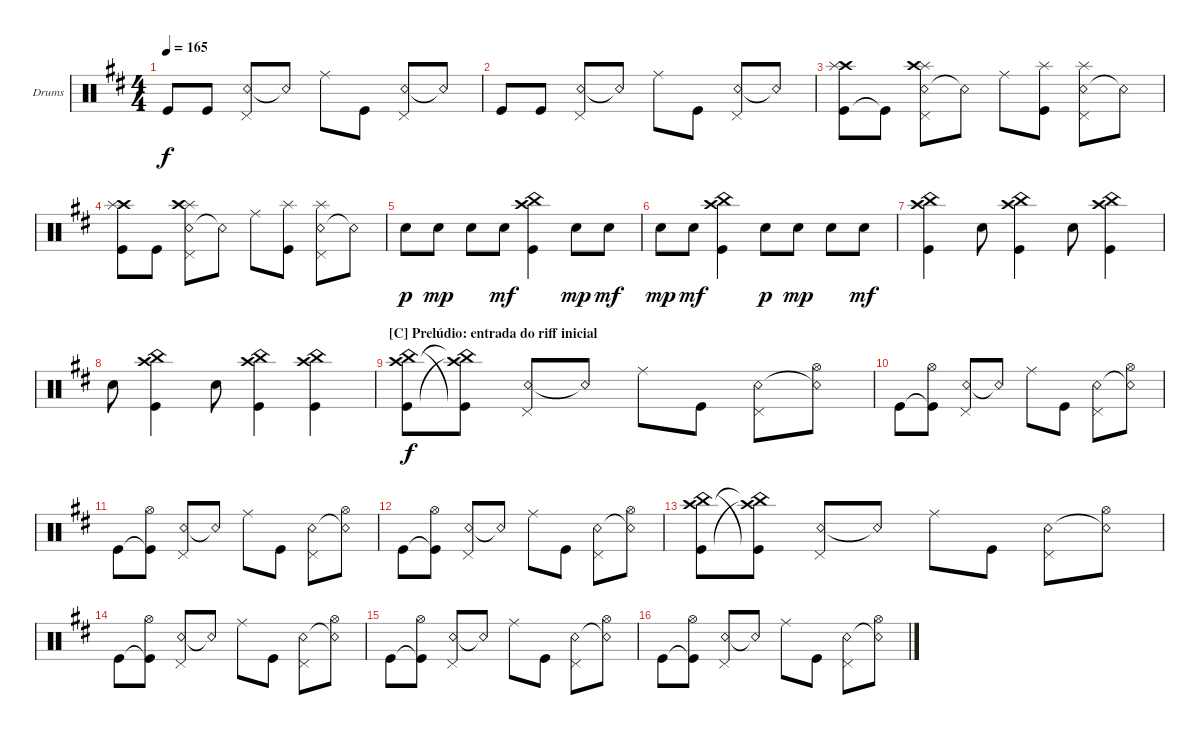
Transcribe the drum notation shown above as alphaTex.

\defaultSystemsLayout 4
\bracketExtendMode groupsimilarinstruments
\firstSystemTrackNameOrientation horizontal
\otherSystemsTrackNameOrientation horizontal
\track ("Bateria" "Drums") {multiBarRest instrument percussion}
\staff {score}
\articulation defaults
\ts (4 4)
\tempo 165
\clef neutral
\ks d "Kick (hit)".8{dy f} "Kick (hit)".8
("Snare (rim shot)" "Pedal Hi-Hat (hit)").8 "Snare (rim shot)"{t}.8 "Ride (middle)".8 "Kick (hit)".8 ("Snare (rim shot)" "Pedal Hi-Hat (hit)").8 "Snare (rim shot)"{t}.8 |
"Kick (hit)".8 "Kick (hit)".8 ("Snare (rim shot)" "Pedal Hi-Hat (hit)").8 "Snare (rim shot)"{t}.8 "Ride (middle)".8 "Kick (hit)".8 ("Snare (rim shot)" "Pedal Hi-Hat (hit)").8 "Snare (rim shot)"{t}.8 |
("Kick (hit)" "Crash high (hit)" "Splash (hit)").8 "Kick (hit)"{t}.8 ("Snare (rim shot)" "Pedal Hi-Hat (hit)" "Splash (hit)" "Crash high (hit)").8 "Snare (rim shot)"{t}.8 "Ride (middle)".8 ("Kick (hit)" "Splash (hit)").8 ("Snare (rim shot)" "Pedal Hi-Hat (hit)" "Splash (hit)").8 "Snare (rim shot)"{t}.8 |
("Kick (hit)" "Crash high (hit)" "Splash (hit)").8 "Kick (hit)".8 ("Snare (rim shot)" "Pedal Hi-Hat (hit)" "Splash (hit)" "Crash high (hit)").8 "Snare (rim shot)"{t}.8 "Ride (middle)".8 ("Kick (hit)" "Splash (hit)").8 ("Snare (rim shot)" "Pedal Hi-Hat (hit)" "Splash (hit)").8 "Snare (rim shot)"{t}.8 |
"Snare (hit) 2".8{dy p} "Snare (hit) 2".8{dy mp} "Snare (hit) 2".8 "Snare (hit) 2".8{dy mf} ("Crash high (hit)" "China (hit)" "Kick (hit)").4 "Snare (hit) 2".8{dy mp} "Snare (hit) 2".8{dy mf} |
"Snare (hit) 2".8{dy mp} "Snare (hit) 2".8{dy mf} ("Crash high (hit)" "China (hit)" "Kick (hit)").4 "Snare (hit) 2".8{dy p} "Snare (hit) 2".8{dy mp} "Snare (hit) 2".8 "Snare (hit) 2".8{dy mf} |
("Crash high (hit)" "China (hit)" "Kick (hit)").4 "Snare (hit) 2".8 ("Crash high (hit)" "China (hit)" "Kick (hit)").4 "Snare (hit) 2".8 ("Crash high (hit)" "China (hit)" "Kick (hit)").4 |
"Snare (hit) 2".8 ("Crash high (hit)" "China (hit)" "Kick (hit)").4 "Snare (hit) 2".8 ("Crash high (hit)" "China (hit)" "Kick (hit)").4 ("Crash high (hit)" "China (hit)" "Kick (hit)").4 |
\section ("C" "Prelúdio: entrada do riff inicial")
("China (hit)" "Crash high (hit)" "Kick (hit)").8{dy f} ("Kick (hit)"{t} "China (hit)"{t} "Crash high (hit)"{t}).8 ("Snare (rim shot)" "Pedal Hi-Hat (hit)").8 "Snare (rim shot)"{t}.8 "Ride (middle)".8 "Kick (hit)".8 ("Snare (rim shot)" "Pedal Hi-Hat (hit)").8 ("Snare (rim shot)"{t} "Hi-Hat (open)").8 |
"Kick (hit)".8 ("Kick (hit)"{t} "Hi-Hat (open)").8 ("Snare (rim shot)" "Pedal Hi-Hat (hit)").8 "Snare (rim shot)"{t}.8 "Ride (middle)".8 "Kick (hit)".8 ("Snare (rim shot)" "Pedal Hi-Hat (hit)").8 ("Snare (rim shot)"{t} "Hi-Hat (open)").8 |
"Kick (hit)".8 ("Kick (hit)"{t} "Hi-Hat (open)").8 ("Snare (rim shot)" "Pedal Hi-Hat (hit)").8 "Snare (rim shot)"{t}.8 "Ride (middle)".8 "Kick (hit)".8 ("Snare (rim shot)" "Pedal Hi-Hat (hit)").8 ("Snare (rim shot)"{t} "Hi-Hat (open)").8 |
"Kick (hit)".8 ("Kick (hit)"{t} "Hi-Hat (open)").8 ("Snare (rim shot)" "Pedal Hi-Hat (hit)").8 "Snare (rim shot)"{t}.8 "Ride (middle)".8 "Kick (hit)".8 ("Snare (rim shot)" "Pedal Hi-Hat (hit)").8 ("Snare (rim shot)"{t} "Hi-Hat (open)").8 |
("China (hit)" "Crash high (hit)" "Kick (hit)").8 ("Kick (hit)"{t} "China (hit)"{t} "Crash high (hit)"{t}).8 ("Snare (rim shot)" "Pedal Hi-Hat (hit)").8 "Snare (rim shot)"{t}.8 "Ride (middle)".8 "Kick (hit)".8 ("Snare (rim shot)" "Pedal Hi-Hat (hit)").8 ("Snare (rim shot)"{t} "Hi-Hat (open)").8 |
"Kick (hit)".8 ("Kick (hit)"{t} "Hi-Hat (open)").8 ("Snare (rim shot)" "Pedal Hi-Hat (hit)").8 "Snare (rim shot)"{t}.8 "Ride (middle)".8 "Kick (hit)".8 ("Snare (rim shot)" "Pedal Hi-Hat (hit)").8 ("Snare (rim shot)"{t} "Hi-Hat (open)").8 |
"Kick (hit)".8 ("Kick (hit)"{t} "Hi-Hat (open)").8 ("Snare (rim shot)" "Pedal Hi-Hat (hit)").8 "Snare (rim shot)"{t}.8 "Ride (middle)".8 "Kick (hit)".8 ("Snare (rim shot)" "Pedal Hi-Hat (hit)").8 ("Snare (rim shot)"{t} "Hi-Hat (open)").8 |
"Kick (hit)".8 ("Kick (hit)"{t} "Hi-Hat (open)").8 ("Snare (rim shot)" "Pedal Hi-Hat (hit)").8 "Snare (rim shot)"{t}.8 "Ride (middle)".8 "Kick (hit)".8 ("Snare (rim shot)" "Pedal Hi-Hat (hit)").8 ("Snare (rim shot)"{t} "Hi-Hat (open)").8
